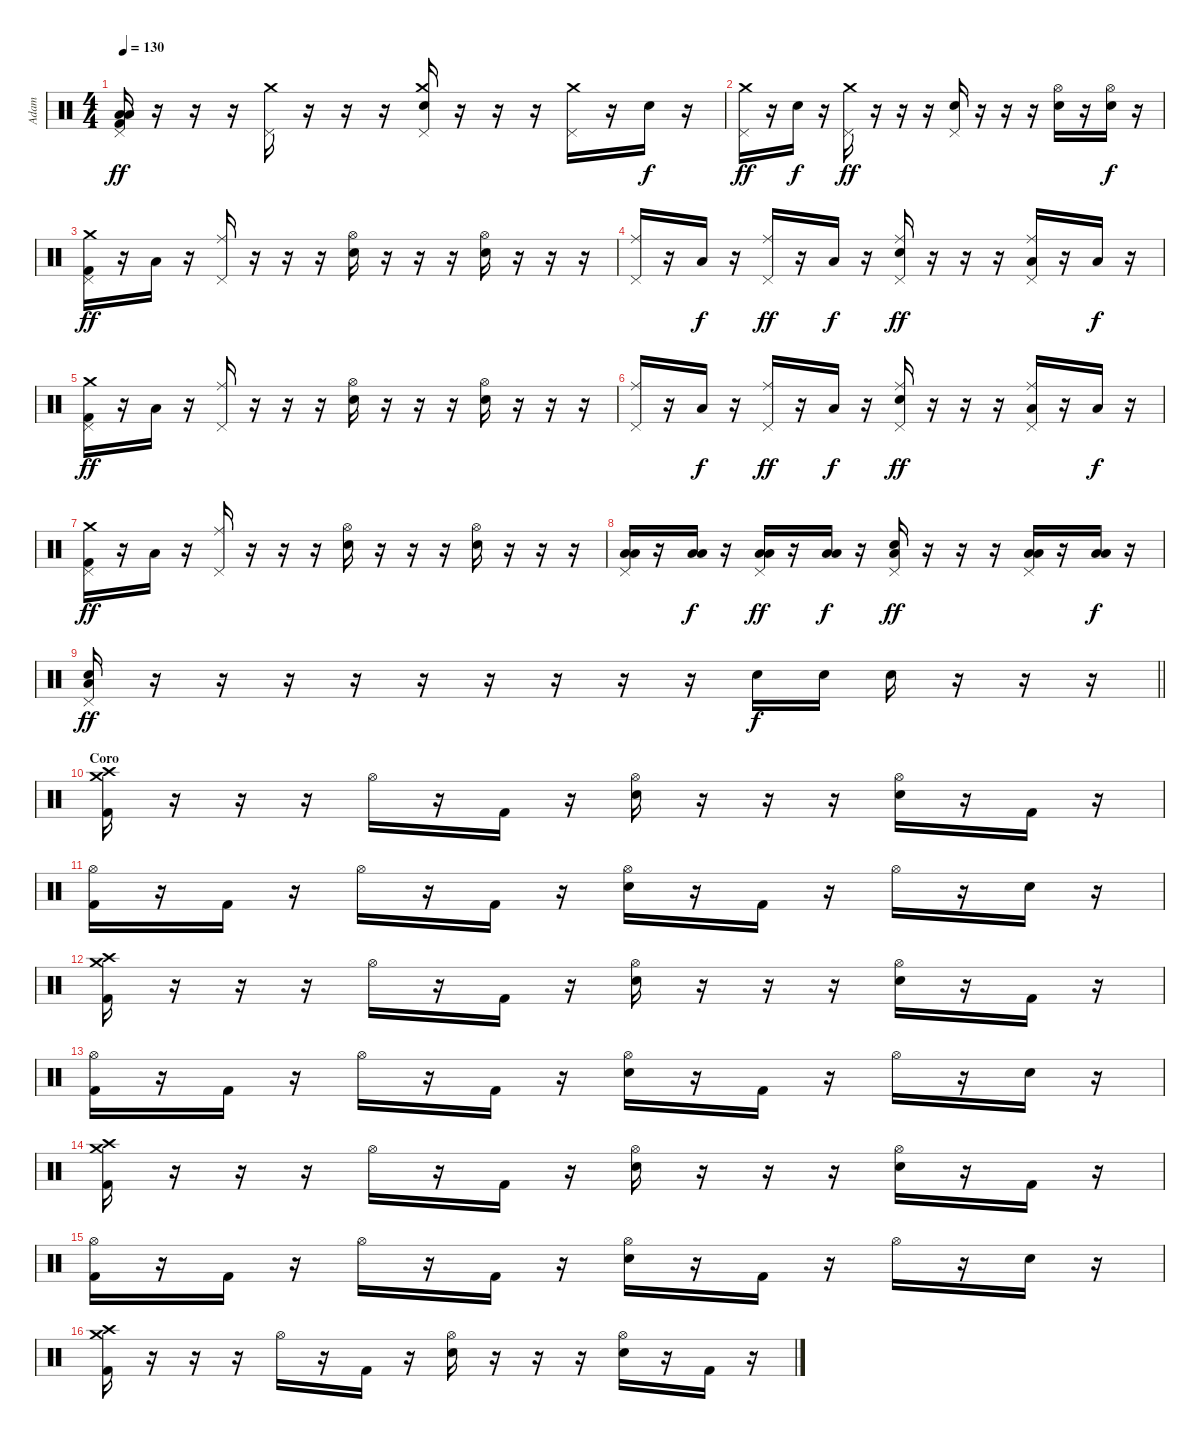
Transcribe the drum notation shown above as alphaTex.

\track ("Adam" "Adam") {instrument percussion}
\staff {score}
\articulation defaults
\ts (4 4)
\tempo 130
\clef neutral
\ks c
("Pedal Hi-Hat (hit)" "Low Tom (hit)" "Low Floor Tom (hit)" "Kick (hit) 2").16{dy ff} r.16 r.16 r.16 ("Crash medium (hit)" "Pedal Hi-Hat (hit)").16 r.16 r.16 r.16 ("Crash medium (hit)" "Pedal Hi-Hat (hit)" "Snare (hit) 2").16 r.16 r.16 r.16 ("Crash medium (hit)" "Pedal Hi-Hat (hit)").16 r.16 "Snare (hit) 2".16{dy f} r.16 |
("Crash medium (hit)" "Pedal Hi-Hat (hit)").16{dy ff} r.16 "Snare (hit) 2".16{dy f} r.16 ("Crash medium (hit)" "Pedal Hi-Hat (hit)").16{dy ff} r.16 r.16 r.16 ("Pedal Hi-Hat (hit)" "Snare (hit) 2").16 r.16 r.16 r.16 ("Hi-Hat (open)" "Snare (hit) 2").16 r.16 ("Hi-Hat (open)" "Snare (hit) 2").16{dy f} r.16 |
("Crash medium (hit)" "Pedal Hi-Hat (hit)" "Kick (hit) 2").16{dy ff} r.16 "Low Floor Tom (hit)".16 r.16 ("Ride (middle)" "Pedal Hi-Hat (hit)").16 r.16 r.16 r.16 ("Hi-Hat (open)" "Snare (hit) 2").16 r.16 r.16 r.16 ("Hi-Hat (open)" "Snare (hit) 2").16 r.16 r.16 r.16 |
("Ride (middle)" "Pedal Hi-Hat (hit)").16 r.16 "Low Tom (hit)".16{dy f} r.16 ("Ride (middle)" "Pedal Hi-Hat (hit)").16{dy ff} r.16 "Low Floor Tom (hit)".16{dy f} r.16 ("Ride (middle)" "Pedal Hi-Hat (hit)" "Snare (hit) 2").16{dy ff} r.16 r.16 r.16 ("Ride (middle)" "Pedal Hi-Hat (hit)" "Low Floor Tom (hit)").16 r.16 "Low Floor Tom (hit)".16{dy f} r.16 |
("Crash medium (hit)" "Pedal Hi-Hat (hit)" "Kick (hit) 2").16{dy ff} r.16 "Low Floor Tom (hit)".16 r.16 ("Ride (middle)" "Pedal Hi-Hat (hit)").16 r.16 r.16 r.16 ("Hi-Hat (open)" "Snare (hit) 2").16 r.16 r.16 r.16 ("Hi-Hat (open)" "Snare (hit) 2").16 r.16 r.16 r.16 |
("Ride (middle)" "Pedal Hi-Hat (hit)").16 r.16 "Low Tom (hit)".16{dy f} r.16 ("Ride (middle)" "Pedal Hi-Hat (hit)").16{dy ff} r.16 "Low Floor Tom (hit)".16{dy f} r.16 ("Ride (middle)" "Pedal Hi-Hat (hit)" "Snare (hit) 2").16{dy ff} r.16 r.16 r.16 ("Ride (middle)" "Pedal Hi-Hat (hit)" "Low Floor Tom (hit)").16 r.16 "Low Floor Tom (hit)".16{dy f} r.16 |
("Crash medium (hit)" "Pedal Hi-Hat (hit)" "Kick (hit) 2").16{dy ff} r.16 "Low Floor Tom (hit)".16 r.16 ("Ride (middle)" "Pedal Hi-Hat (hit)").16 r.16 r.16 r.16 ("Hi-Hat (open)" "Snare (hit) 2").16 r.16 r.16 r.16 ("Hi-Hat (open)" "Snare (hit) 2").16 r.16 r.16 r.16 |
("Pedal Hi-Hat (hit)" "Low Tom (hit)" "Low Floor Tom (hit)").16 r.16 ("Low Tom (hit)" "Low Floor Tom (hit)").16{dy f} r.16 ("Pedal Hi-Hat (hit)" "Low Tom (hit)" "Low Floor Tom (hit)").16{dy ff} r.16 ("Low Tom (hit)" "Low Floor Tom (hit)").16{dy f} r.16 ("Pedal Hi-Hat (hit)" "Snare (hit) 2" "Low Floor Tom (hit)").16{dy ff} r.16 r.16 r.16 ("Pedal Hi-Hat (hit)" "Low Tom (hit)" "Low Floor Tom (hit)").16 r.16 ("Low Tom (hit)" "Low Floor Tom (hit)").16{dy f} r.16 |
\barLineRight lightlight
("Pedal Hi-Hat (hit)" "Snare (hit) 2" "Low Floor Tom (hit)").16{dy ff} r.16 r.16 r.16 r.16 r.16 r.16 r.16 r.16 r.16 "Snare (hit) 2".16{dy f} "Snare (hit) 2".16 "Snare (hit) 2".16 r.16 r.16 r.16 |
\section ("" "Coro")
("Crash high (hit)" "Crash medium (hit)" "Kick (hit) 2").16 r.16 r.16 r.16 "Hi-Hat (open)".16 r.16 "Kick (hit) 2".16 r.16 ("Hi-Hat (open)" "Snare (hit) 2").16 r.16 r.16 r.16 ("Hi-Hat (open)" "Snare (hit) 2").16 r.16 "Kick (hit) 2".16 r.16 |
("Hi-Hat (open)" "Kick (hit) 2").16 r.16 "Kick (hit) 2".16 r.16 "Hi-Hat (open)".16 r.16 "Kick (hit) 2".16 r.16 ("Hi-Hat (open)" "Snare (hit) 2").16 r.16 "Kick (hit) 2".16 r.16 "Hi-Hat (open)".16 r.16 "Snare (hit) 2".16 r.16 |
("Crash high (hit)" "Crash medium (hit)" "Kick (hit) 2").16 r.16 r.16 r.16 "Hi-Hat (open)".16 r.16 "Kick (hit) 2".16 r.16 ("Hi-Hat (open)" "Snare (hit) 2").16 r.16 r.16 r.16 ("Hi-Hat (open)" "Snare (hit) 2").16 r.16 "Kick (hit) 2".16 r.16 |
("Hi-Hat (open)" "Kick (hit) 2").16 r.16 "Kick (hit) 2".16 r.16 "Hi-Hat (open)".16 r.16 "Kick (hit) 2".16 r.16 ("Hi-Hat (open)" "Snare (hit) 2").16 r.16 "Kick (hit) 2".16 r.16 "Hi-Hat (open)".16 r.16 "Snare (hit) 2".16 r.16 |
("Crash high (hit)" "Crash medium (hit)" "Kick (hit) 2").16 r.16 r.16 r.16 "Hi-Hat (open)".16 r.16 "Kick (hit) 2".16 r.16 ("Hi-Hat (open)" "Snare (hit) 2").16 r.16 r.16 r.16 ("Hi-Hat (open)" "Snare (hit) 2").16 r.16 "Kick (hit) 2".16 r.16 |
("Hi-Hat (open)" "Kick (hit) 2").16 r.16 "Kick (hit) 2".16 r.16 "Hi-Hat (open)".16 r.16 "Kick (hit) 2".16 r.16 ("Hi-Hat (open)" "Snare (hit) 2").16 r.16 "Kick (hit) 2".16 r.16 "Hi-Hat (open)".16 r.16 "Snare (hit) 2".16 r.16 |
("Crash high (hit)" "Crash medium (hit)" "Kick (hit) 2").16 r.16 r.16 r.16 "Hi-Hat (open)".16 r.16 "Kick (hit) 2".16 r.16 ("Hi-Hat (open)" "Snare (hit) 2").16 r.16 r.16 r.16 ("Hi-Hat (open)" "Snare (hit) 2").16 r.16 "Kick (hit) 2".16 r.16
